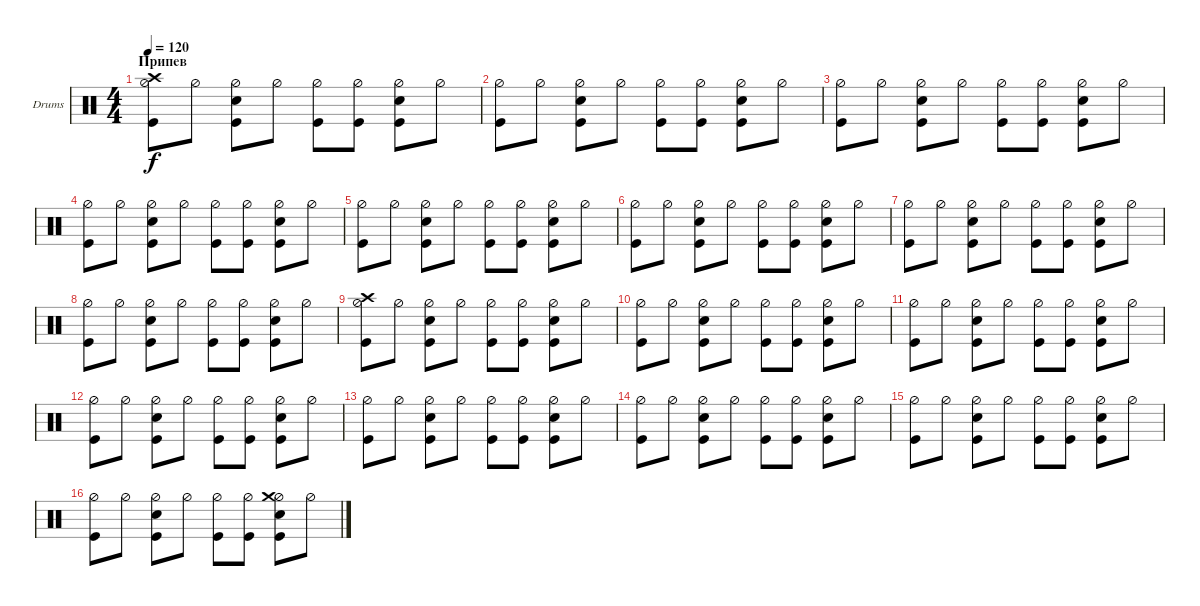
\defaultSystemsLayout 4
\bracketExtendMode groupsimilarinstruments
\firstSystemTrackNameOrientation horizontal
\otherSystemsTrackNameOrientation horizontal
\track ("Drumkit" "Drums") {instrument percussion}
\staff {score}
\articulation defaults
\ts (4 4)
\section ("" "Припев")
\tempo 120
\clef neutral
\ks c
("Hi-Hat (half)" "Kick (hit)" "Crash high (hit)").8{dy f} "Hi-Hat (half)".8 ("Hi-Hat (half)" "Snare (hit) 2" "Kick (hit)").8 "Hi-Hat (half)".8 ("Hi-Hat (half)" "Kick (hit)").8 ("Hi-Hat (half)" "Kick (hit)").8 ("Hi-Hat (half)" "Snare (hit) 2" "Kick (hit)").8 "Hi-Hat (half)".8 |
("Hi-Hat (half)" "Kick (hit)").8 "Hi-Hat (half)".8 ("Hi-Hat (half)" "Snare (hit) 2" "Kick (hit)").8 "Hi-Hat (half)".8 ("Hi-Hat (half)" "Kick (hit)").8 ("Hi-Hat (half)" "Kick (hit)").8 ("Hi-Hat (half)" "Snare (hit) 2" "Kick (hit)").8 "Hi-Hat (half)".8 |
("Hi-Hat (half)" "Kick (hit)").8 "Hi-Hat (half)".8 ("Hi-Hat (half)" "Snare (hit) 2" "Kick (hit)").8 "Hi-Hat (half)".8 ("Hi-Hat (half)" "Kick (hit)").8 ("Hi-Hat (half)" "Kick (hit)").8 ("Hi-Hat (half)" "Snare (hit) 2" "Kick (hit)").8 "Hi-Hat (half)".8 |
("Hi-Hat (half)" "Kick (hit)").8 "Hi-Hat (half)".8 ("Hi-Hat (half)" "Snare (hit) 2" "Kick (hit)").8 "Hi-Hat (half)".8 ("Hi-Hat (half)" "Kick (hit)").8 ("Hi-Hat (half)" "Kick (hit)").8 ("Hi-Hat (half)" "Snare (hit) 2" "Kick (hit)").8 "Hi-Hat (half)".8 |
("Kick (hit)" "Hi-Hat (half)").8 "Hi-Hat (half)".8 ("Hi-Hat (half)" "Snare (hit) 2" "Kick (hit)").8 "Hi-Hat (half)".8 ("Hi-Hat (half)" "Kick (hit)").8 ("Hi-Hat (half)" "Kick (hit)").8 ("Hi-Hat (half)" "Snare (hit) 2" "Kick (hit)").8 "Hi-Hat (half)".8 |
("Hi-Hat (half)" "Kick (hit)").8 "Hi-Hat (half)".8 ("Hi-Hat (half)" "Snare (hit) 2" "Kick (hit)").8 "Hi-Hat (half)".8 ("Hi-Hat (half)" "Kick (hit)").8 ("Hi-Hat (half)" "Kick (hit)").8 ("Hi-Hat (half)" "Snare (hit) 2" "Kick (hit)").8 "Hi-Hat (half)".8 |
("Hi-Hat (half)" "Kick (hit)").8 "Hi-Hat (half)".8 ("Hi-Hat (half)" "Snare (hit) 2" "Kick (hit)").8 "Hi-Hat (half)".8 ("Hi-Hat (half)" "Kick (hit)").8 ("Hi-Hat (half)" "Kick (hit)").8 ("Hi-Hat (half)" "Snare (hit) 2" "Kick (hit)").8 "Hi-Hat (half)".8 |
("Hi-Hat (half)" "Kick (hit)").8 "Hi-Hat (half)".8 ("Hi-Hat (half)" "Snare (hit) 2" "Kick (hit)").8 "Hi-Hat (half)".8 ("Hi-Hat (half)" "Kick (hit)").8 ("Hi-Hat (half)" "Kick (hit)").8 ("Hi-Hat (half)" "Snare (hit) 2" "Kick (hit)").8 "Hi-Hat (half)".8 |
("Hi-Hat (half)" "Kick (hit)" "Crash high (hit)").8 "Hi-Hat (half)".8 ("Hi-Hat (half)" "Snare (hit) 2" "Kick (hit)").8 "Hi-Hat (half)".8 ("Hi-Hat (half)" "Kick (hit)").8 ("Hi-Hat (half)" "Kick (hit)").8 ("Hi-Hat (half)" "Snare (hit) 2" "Kick (hit)").8 "Hi-Hat (half)".8 |
("Hi-Hat (half)" "Kick (hit)").8 "Hi-Hat (half)".8 ("Hi-Hat (half)" "Snare (hit) 2" "Kick (hit)").8 "Hi-Hat (half)".8 ("Hi-Hat (half)" "Kick (hit)").8 ("Hi-Hat (half)" "Kick (hit)").8 ("Hi-Hat (half)" "Snare (hit) 2" "Kick (hit)").8 "Hi-Hat (half)".8 |
("Hi-Hat (half)" "Kick (hit)").8 "Hi-Hat (half)".8 ("Hi-Hat (half)" "Snare (hit) 2" "Kick (hit)").8 "Hi-Hat (half)".8 ("Hi-Hat (half)" "Kick (hit)").8 ("Hi-Hat (half)" "Kick (hit)").8 ("Hi-Hat (half)" "Snare (hit) 2" "Kick (hit)").8 "Hi-Hat (half)".8 |
("Hi-Hat (half)" "Kick (hit)").8 "Hi-Hat (half)".8 ("Hi-Hat (half)" "Snare (hit) 2" "Kick (hit)").8 "Hi-Hat (half)".8 ("Hi-Hat (half)" "Kick (hit)").8 ("Hi-Hat (half)" "Kick (hit)").8 ("Hi-Hat (half)" "Snare (hit) 2" "Kick (hit)").8 "Hi-Hat (half)".8 |
("Hi-Hat (half)" "Kick (hit)").8 "Hi-Hat (half)".8 ("Hi-Hat (half)" "Snare (hit) 2" "Kick (hit)").8 "Hi-Hat (half)".8 ("Hi-Hat (half)" "Kick (hit)").8 ("Hi-Hat (half)" "Kick (hit)").8 ("Hi-Hat (half)" "Snare (hit) 2" "Kick (hit)").8 "Hi-Hat (half)".8 |
("Hi-Hat (half)" "Kick (hit)").8 "Hi-Hat (half)".8 ("Hi-Hat (half)" "Snare (hit) 2" "Kick (hit)").8 "Hi-Hat (half)".8 ("Hi-Hat (half)" "Kick (hit)").8 ("Hi-Hat (half)" "Kick (hit)").8 ("Hi-Hat (half)" "Snare (hit) 2" "Kick (hit)").8 "Hi-Hat (half)".8 |
("Hi-Hat (half)" "Kick (hit)").8 "Hi-Hat (half)".8 ("Hi-Hat (half)" "Snare (hit) 2" "Kick (hit)").8 "Hi-Hat (half)".8 ("Hi-Hat (half)" "Kick (hit)").8 ("Hi-Hat (half)" "Kick (hit)").8 ("Hi-Hat (half)" "Snare (hit) 2" "Kick (hit)").8 "Hi-Hat (half)".8 |
("Hi-Hat (half)" "Kick (hit)").8 "Hi-Hat (half)".8 ("Hi-Hat (half)" "Snare (hit) 2" "Kick (hit)").8 "Hi-Hat (half)".8 ("Hi-Hat (half)" "Kick (hit)").8 ("Hi-Hat (half)" "Kick (hit)").8 ("Hi-Hat (half)" "Snare (hit) 2" "Kick (hit)" "Crash medium (hit)").8 "Hi-Hat (half)".8
